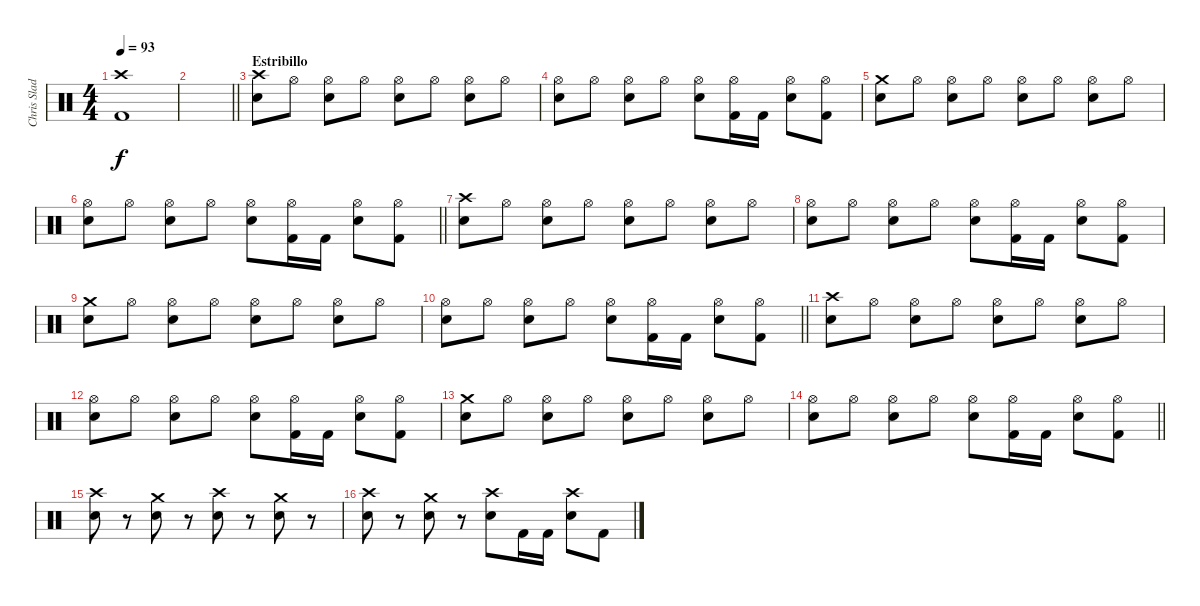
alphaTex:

\track ("Chris Slade" "Chris Slad") {instrument percussion}
\staff {score}
\articulation defaults
\ts (4 4)
\tempo 93
\clef neutral
\ks c
("Kick (hit) 2" "Crash high (hit)").1{dy f} |
\barLineRight lightlight
|
\section ("" "Estribillo")
("Crash high (hit)" "Snare (hit) 2").8 "Hi-Hat (open)".8 ("Snare (hit) 2" "Hi-Hat (open)").8 "Hi-Hat (open)".8 ("Snare (hit) 2" "Hi-Hat (open)").8 "Hi-Hat (open)".8 ("Snare (hit) 2" "Hi-Hat (open)").8 "Hi-Hat (open)".8 |
("Snare (hit) 2" "Hi-Hat (open)").8 "Hi-Hat (open)".8 ("Snare (hit) 2" "Hi-Hat (open)").8 "Hi-Hat (open)".8 ("Snare (hit) 2" "Hi-Hat (open)").8 ("Kick (hit) 2" "Hi-Hat (open)").16 "Kick (hit) 2".16 ("Snare (hit) 2" "Hi-Hat (open)").8 ("Kick (hit) 2" "Hi-Hat (open)").8 |
("Crash medium (hit)" "Snare (hit) 2").8 "Hi-Hat (open)".8 ("Snare (hit) 2" "Hi-Hat (open)").8 "Hi-Hat (open)".8 ("Snare (hit) 2" "Hi-Hat (open)").8 "Hi-Hat (open)".8 ("Snare (hit) 2" "Hi-Hat (open)").8 "Hi-Hat (open)".8 |
\barLineRight lightlight
("Snare (hit) 2" "Hi-Hat (open)").8 "Hi-Hat (open)".8 ("Snare (hit) 2" "Hi-Hat (open)").8 "Hi-Hat (open)".8 ("Snare (hit) 2" "Hi-Hat (open)").8 ("Kick (hit) 2" "Hi-Hat (open)").16 "Kick (hit) 2".16 ("Snare (hit) 2" "Hi-Hat (open)").8 ("Kick (hit) 2" "Hi-Hat (open)").8 |
("Crash high (hit)" "Snare (hit) 2").8 "Hi-Hat (open)".8 ("Snare (hit) 2" "Hi-Hat (open)").8 "Hi-Hat (open)".8 ("Snare (hit) 2" "Hi-Hat (open)").8 "Hi-Hat (open)".8 ("Snare (hit) 2" "Hi-Hat (open)").8 "Hi-Hat (open)".8 |
("Snare (hit) 2" "Hi-Hat (open)").8 "Hi-Hat (open)".8 ("Snare (hit) 2" "Hi-Hat (open)").8 "Hi-Hat (open)".8 ("Snare (hit) 2" "Hi-Hat (open)").8 ("Kick (hit) 2" "Hi-Hat (open)").16 "Kick (hit) 2".16 ("Snare (hit) 2" "Hi-Hat (open)").8 ("Kick (hit) 2" "Hi-Hat (open)").8 |
("Crash medium (hit)" "Snare (hit) 2").8 "Hi-Hat (open)".8 ("Snare (hit) 2" "Hi-Hat (open)").8 "Hi-Hat (open)".8 ("Snare (hit) 2" "Hi-Hat (open)").8 "Hi-Hat (open)".8 ("Snare (hit) 2" "Hi-Hat (open)").8 "Hi-Hat (open)".8 |
\barLineRight lightlight
("Snare (hit) 2" "Hi-Hat (open)").8 "Hi-Hat (open)".8 ("Snare (hit) 2" "Hi-Hat (open)").8 "Hi-Hat (open)".8 ("Snare (hit) 2" "Hi-Hat (open)").8 ("Kick (hit) 2" "Hi-Hat (open)").16 "Kick (hit) 2".16 ("Snare (hit) 2" "Hi-Hat (open)").8 ("Kick (hit) 2" "Hi-Hat (open)").8 |
("Crash high (hit)" "Snare (hit) 2").8 "Hi-Hat (open)".8 ("Snare (hit) 2" "Hi-Hat (open)").8 "Hi-Hat (open)".8 ("Snare (hit) 2" "Hi-Hat (open)").8 "Hi-Hat (open)".8 ("Snare (hit) 2" "Hi-Hat (open)").8 "Hi-Hat (open)".8 |
("Snare (hit) 2" "Hi-Hat (open)").8 "Hi-Hat (open)".8 ("Snare (hit) 2" "Hi-Hat (open)").8 "Hi-Hat (open)".8 ("Snare (hit) 2" "Hi-Hat (open)").8 ("Kick (hit) 2" "Hi-Hat (open)").16 "Kick (hit) 2".16 ("Snare (hit) 2" "Hi-Hat (open)").8 ("Kick (hit) 2" "Hi-Hat (open)").8 |
("Crash medium (hit)" "Snare (hit) 2").8 "Hi-Hat (open)".8 ("Snare (hit) 2" "Hi-Hat (open)").8 "Hi-Hat (open)".8 ("Snare (hit) 2" "Hi-Hat (open)").8 "Hi-Hat (open)".8 ("Snare (hit) 2" "Hi-Hat (open)").8 "Hi-Hat (open)".8 |
\barLineRight lightlight
("Snare (hit) 2" "Hi-Hat (open)").8 "Hi-Hat (open)".8 ("Snare (hit) 2" "Hi-Hat (open)").8 "Hi-Hat (open)".8 ("Snare (hit) 2" "Hi-Hat (open)").8 ("Kick (hit) 2" "Hi-Hat (open)").16 "Kick (hit) 2".16 ("Snare (hit) 2" "Hi-Hat (open)").8 ("Kick (hit) 2" "Hi-Hat (open)").8 |
("Crash high (hit)" "Snare (hit) 2").8 r.8 ("Crash medium (hit)" "Snare (hit) 2").8 r.8 ("Crash high (hit)" "Snare (hit) 2").8 r.8 ("Crash medium (hit)" "Snare (hit) 2").8 r.8 |
("Crash high (hit)" "Snare (hit) 2").8 r.8 ("Crash medium (hit)" "Snare (hit) 2").8 r.8 ("Crash high (hit)" "Snare (hit) 2").8 "Kick (hit) 2".16 "Kick (hit) 2".16 ("Crash high (hit)" "Snare (hit) 2").8 "Kick (hit) 2".8
